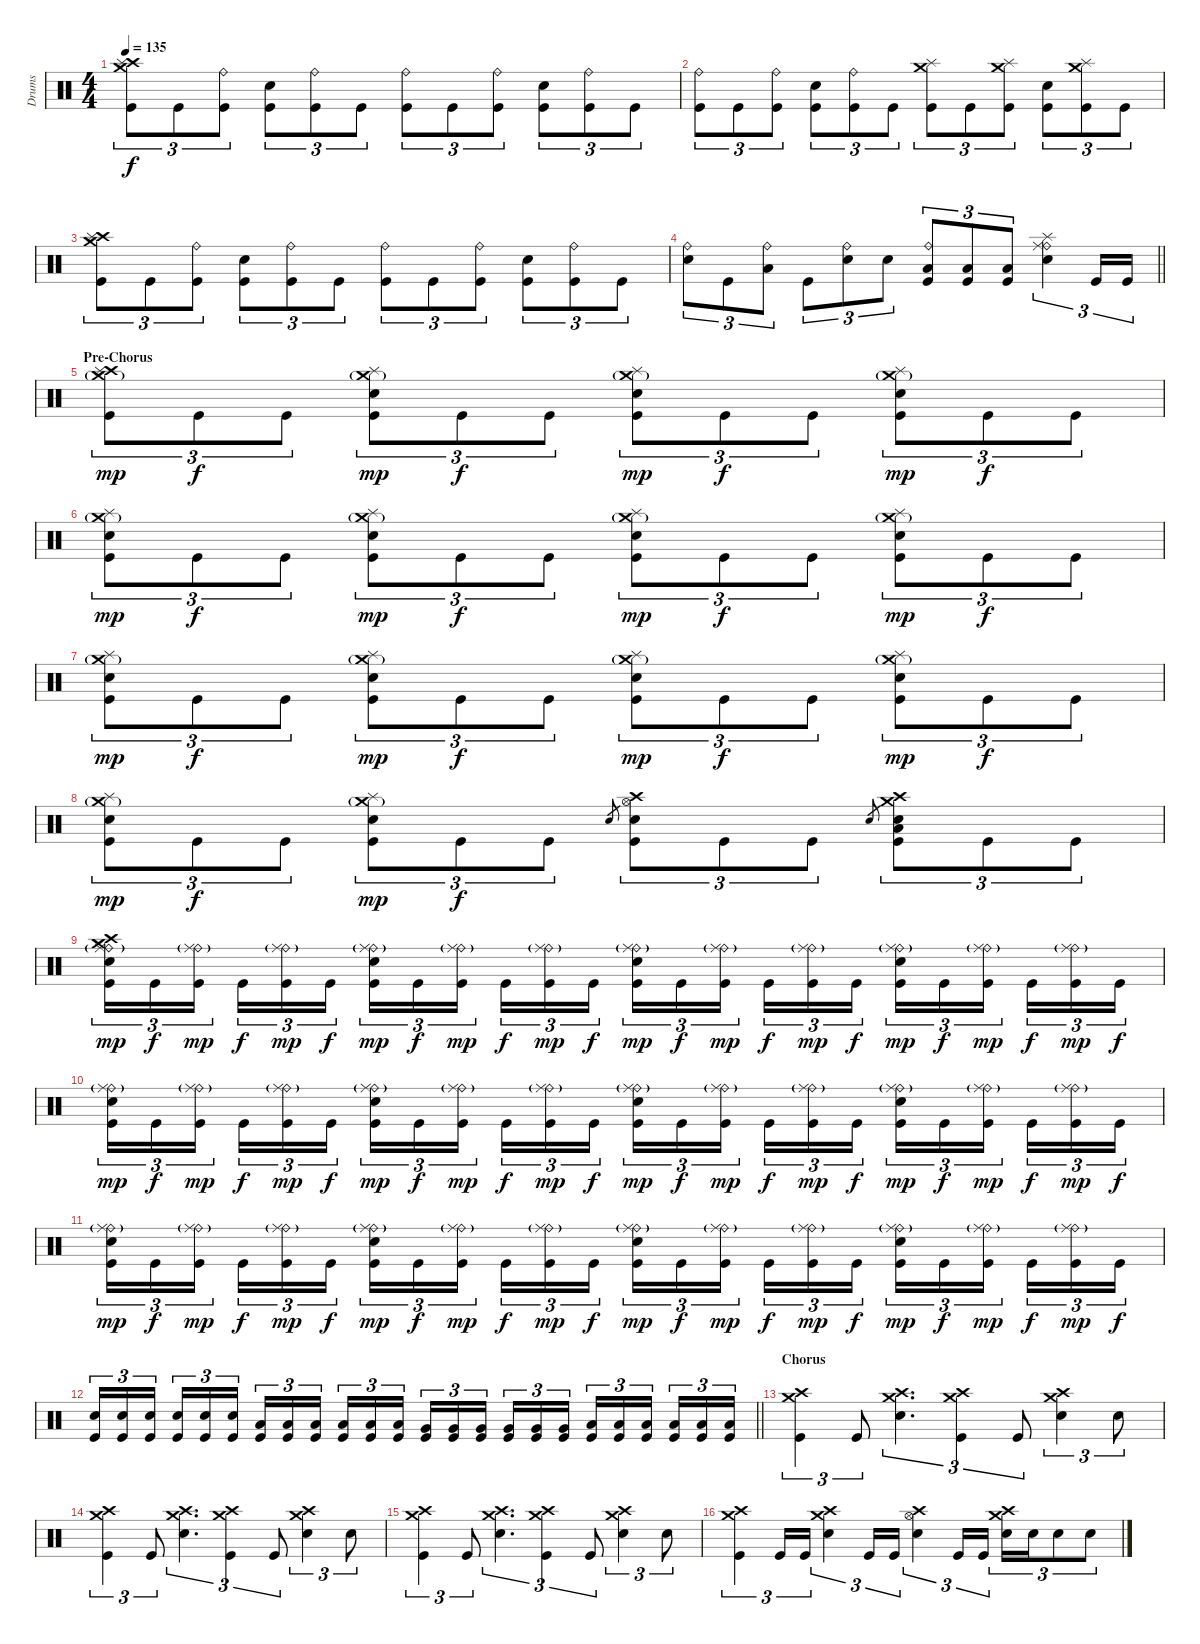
\track ("Drums" "Drums") {instrument percussion}
\staff {score}
\articulation defaults
\ts (4 4)
\tempo 135
\clef neutral
\ks c
("Crash high (hit)" "Crash medium (hit)" "Splash (hit)" "Kick (hit)").8{tu (3 2) dy f} "Kick (hit)".8{tu (3 2)} ("Ride (bell)" "Kick (hit)").8{tu (3 2)} ("Electric Snare (hit)" "Kick (hit)").8{tu (3 2)} ("Ride (bell)" "Kick (hit)").8{tu (3 2)} "Kick (hit)".8{tu (3 2)} ("Ride (bell)" "Kick (hit)").8{tu (3 2)} "Kick (hit)".8{tu (3 2)} ("Ride (bell)" "Kick (hit)").8{tu (3 2)} ("Electric Snare (hit)" "Kick (hit)").8{tu (3 2)} ("Ride (bell)" "Kick (hit)").8{tu (3 2)} "Kick (hit)".8{tu (3 2)} |
("Ride (bell)" "Kick (hit)").8{tu (3 2)} "Kick (hit)".8{tu (3 2)} ("Ride (bell)" "Kick (hit)").8{tu (3 2)} ("Electric Snare (hit)" "Kick (hit)").8{tu (3 2)} ("Ride (bell)" "Kick (hit)").8{tu (3 2)} "Kick (hit)".8{tu (3 2)} ("Crash medium (hit)" "Splash (hit)" "Kick (hit)").8{tu (3 2)} "Kick (hit)".8{tu (3 2)} ("Crash medium (hit)" "Splash (hit)" "Kick (hit)").8{tu (3 2)} ("Electric Snare (hit)" "Kick (hit)").8{tu (3 2)} ("Crash medium (hit)" "Splash (hit)" "Kick (hit)").8{tu (3 2)} "Kick (hit)".8{tu (3 2)} |
("Crash high (hit)" "Crash medium (hit)" "Splash (hit)" "Kick (hit)").8{tu (3 2)} "Kick (hit)".8{tu (3 2)} ("Ride (bell)" "Kick (hit)").8{tu (3 2)} ("Electric Snare (hit)" "Kick (hit)").8{tu (3 2)} ("Ride (bell)" "Kick (hit)").8{tu (3 2)} "Kick (hit)".8{tu (3 2)} ("Ride (bell)" "Kick (hit)").8{tu (3 2)} "Kick (hit)".8{tu (3 2)} ("Ride (bell)" "Kick (hit)").8{tu (3 2)} ("Electric Snare (hit)" "Kick (hit)").8{tu (3 2)} ("Ride (bell)" "Kick (hit)").8{tu (3 2)} "Kick (hit)".8{tu (3 2)} |
\barLineRight lightlight
("Ride (bell)" "Electric Snare (hit)").8{tu (3 2)} "Kick (hit)".8{tu (3 2)} ("Ride (bell)" "Low Floor Tom (hit)").8{tu (3 2)} "Kick (hit)".8{tu (3 2)} ("Ride (bell)" "Electric Snare (hit)").8{tu (3 2)} "Electric Snare (hit)".8{tu (3 2)} ("Ride (bell)" "Low Floor Tom (hit)" "Kick (hit)").8{tu (3 2)} ("Low Floor Tom (hit)" "Kick (hit)").8{tu (3 2)} ("Low Floor Tom (hit)" "Kick (hit)").8{tu (3 2)} ("Splash (hit)" "Ride (bell)" "Ride (middle)" "Electric Snare (hit)").4{tu (3 2)} "Kick (hit)".16{tu (3 2)} "Kick (hit)".16{tu (3 2)} |
\section ("" "Pre-Chorus")
("Crash high (hit)" "Crash medium (hit)"{g} "Splash (hit)" "Kick (hit)").8{tu (3 2) dy mp} "Kick (hit)".8{tu (3 2) dy f} "Kick (hit)".8{tu (3 2)} ("Crash medium (hit)"{g} "Splash (hit)" "Electric Snare (hit)" "Kick (hit)").8{tu (3 2) dy mp} "Kick (hit)".8{tu (3 2) dy f} "Kick (hit)".8{tu (3 2)} ("Crash medium (hit)"{g} "Splash (hit)" "Electric Snare (hit)" "Kick (hit)").8{tu (3 2) dy mp} "Kick (hit)".8{tu (3 2) dy f} "Kick (hit)".8{tu (3 2)} ("Crash medium (hit)"{g} "Splash (hit)" "Electric Snare (hit)" "Kick (hit)").8{tu (3 2) dy mp} "Kick (hit)".8{tu (3 2) dy f} "Kick (hit)".8{tu (3 2)} |
("Crash medium (hit)"{g} "Splash (hit)" "Electric Snare (hit)" "Kick (hit)").8{tu (3 2) dy mp} "Kick (hit)".8{tu (3 2) dy f} "Kick (hit)".8{tu (3 2)} ("Crash medium (hit)"{g} "Splash (hit)" "Electric Snare (hit)" "Kick (hit)").8{tu (3 2) dy mp} "Kick (hit)".8{tu (3 2) dy f} "Kick (hit)".8{tu (3 2)} ("Crash medium (hit)"{g} "Splash (hit)" "Electric Snare (hit)" "Kick (hit)").8{tu (3 2) dy mp} "Kick (hit)".8{tu (3 2) dy f} "Kick (hit)".8{tu (3 2)} ("Crash medium (hit)"{g} "Splash (hit)" "Electric Snare (hit)" "Kick (hit)").8{tu (3 2) dy mp} "Kick (hit)".8{tu (3 2) dy f} "Kick (hit)".8{tu (3 2)} |
("Crash medium (hit)"{g} "Splash (hit)" "Electric Snare (hit)" "Kick (hit)").8{tu (3 2) dy mp} "Kick (hit)".8{tu (3 2) dy f} "Kick (hit)".8{tu (3 2)} ("Crash medium (hit)"{g} "Splash (hit)" "Electric Snare (hit)" "Kick (hit)").8{tu (3 2) dy mp} "Kick (hit)".8{tu (3 2) dy f} "Kick (hit)".8{tu (3 2)} ("Crash medium (hit)"{g} "Splash (hit)" "Electric Snare (hit)" "Kick (hit)").8{tu (3 2) dy mp} "Kick (hit)".8{tu (3 2) dy f} "Kick (hit)".8{tu (3 2)} ("Crash medium (hit)"{g} "Splash (hit)" "Electric Snare (hit)" "Kick (hit)").8{tu (3 2) dy mp} "Kick (hit)".8{tu (3 2) dy f} "Kick (hit)".8{tu (3 2)} |
("Crash medium (hit)"{g} "Splash (hit)" "Electric Snare (hit)" "Kick (hit)").8{tu (3 2) dy mp} "Kick (hit)".8{tu (3 2) dy f} "Kick (hit)".8{tu (3 2)} ("Crash medium (hit)"{g} "Splash (hit)" "Electric Snare (hit)" "Kick (hit)").8{tu (3 2) dy mp} "Kick (hit)".8{tu (3 2) dy f} "Kick (hit)".8{tu (3 2)} "Electric Snare (hit)".8{gr} ("Hi-Hat (open)" "Crash high (hit)" "Electric Snare (hit)" "Kick (hit)").8{tu (3 2)} "Kick (hit)".8{tu (3 2)} "Kick (hit)".8{tu (3 2)} "Electric Snare (hit)".8{gr} ("Crash high (hit)" "Crash medium (hit)" "Low Floor Tom (hit)" "Electric Snare (hit)" "Kick (hit)").8{tu (3 2)} "Kick (hit)".8{tu (3 2)} "Kick (hit)".8{tu (3 2)} |
("Crash high (hit)" "Ride (bell)" "Ride (middle)"{g} "Crash medium (hit)" "Electric Snare (hit)" "Kick (hit)").16{tu (3 2) dy mp} "Kick (hit)".16{tu (3 2) dy f} ("Ride (bell)" "Ride (middle)"{g} "Kick (hit)").16{tu (3 2) dy mp beam splitsecondary} "Kick (hit)".16{tu (3 2) dy f} ("Ride (bell)" "Ride (middle)"{g} "Kick (hit)").16{tu (3 2) dy mp} "Kick (hit)".16{tu (3 2) dy f} ("Ride (bell)" "Ride (middle)"{g} "Electric Snare (hit)" "Kick (hit)").16{tu (3 2) dy mp} "Kick (hit)".16{tu (3 2) dy f} ("Ride (bell)" "Ride (middle)"{g} "Kick (hit)").16{tu (3 2) dy mp beam splitsecondary} "Kick (hit)".16{tu (3 2) dy f} ("Ride (bell)" "Ride (middle)"{g} "Kick (hit)").16{tu (3 2) dy mp} "Kick (hit)".16{tu (3 2) dy f} ("Ride (bell)" "Ride (middle)"{g} "Electric Snare (hit)" "Kick (hit)").16{tu (3 2) dy mp} "Kick (hit)".16{tu (3 2) dy f} ("Ride (bell)" "Ride (middle)"{g} "Kick (hit)").16{tu (3 2) dy mp beam splitsecondary} "Kick (hit)".16{tu (3 2) dy f} ("Ride (bell)" "Ride (middle)"{g} "Kick (hit)").16{tu (3 2) dy mp} "Kick (hit)".16{tu (3 2) dy f} ("Ride (bell)" "Ride (middle)"{g} "Electric Snare (hit)" "Kick (hit)").16{tu (3 2) dy mp} "Kick (hit)".16{tu (3 2) dy f} ("Ride (bell)" "Ride (middle)"{g} "Kick (hit)").16{tu (3 2) dy mp beam splitsecondary} "Kick (hit)".16{tu (3 2) dy f} ("Ride (bell)" "Ride (middle)"{g} "Kick (hit)").16{tu (3 2) dy mp} "Kick (hit)".16{tu (3 2) dy f} |
("Ride (bell)" "Ride (middle)"{g} "Electric Snare (hit)" "Kick (hit)").16{tu (3 2) dy mp} "Kick (hit)".16{tu (3 2) dy f} ("Ride (bell)" "Ride (middle)"{g} "Kick (hit)").16{tu (3 2) dy mp beam splitsecondary} "Kick (hit)".16{tu (3 2) dy f} ("Ride (bell)" "Ride (middle)"{g} "Kick (hit)").16{tu (3 2) dy mp} "Kick (hit)".16{tu (3 2) dy f} ("Ride (bell)" "Ride (middle)"{g} "Electric Snare (hit)" "Kick (hit)").16{tu (3 2) dy mp} "Kick (hit)".16{tu (3 2) dy f} ("Ride (bell)" "Ride (middle)"{g} "Kick (hit)").16{tu (3 2) dy mp beam splitsecondary} "Kick (hit)".16{tu (3 2) dy f} ("Ride (bell)" "Ride (middle)"{g} "Kick (hit)").16{tu (3 2) dy mp} "Kick (hit)".16{tu (3 2) dy f} ("Ride (bell)" "Ride (middle)"{g} "Electric Snare (hit)" "Kick (hit)").16{tu (3 2) dy mp} "Kick (hit)".16{tu (3 2) dy f} ("Ride (bell)" "Ride (middle)"{g} "Kick (hit)").16{tu (3 2) dy mp beam splitsecondary} "Kick (hit)".16{tu (3 2) dy f} ("Ride (bell)" "Ride (middle)"{g} "Kick (hit)").16{tu (3 2) dy mp} "Kick (hit)".16{tu (3 2) dy f} ("Ride (bell)" "Ride (middle)"{g} "Electric Snare (hit)" "Kick (hit)").16{tu (3 2) dy mp} "Kick (hit)".16{tu (3 2) dy f} ("Ride (bell)" "Ride (middle)"{g} "Kick (hit)").16{tu (3 2) dy mp beam splitsecondary} "Kick (hit)".16{tu (3 2) dy f} ("Ride (bell)" "Ride (middle)"{g} "Kick (hit)").16{tu (3 2) dy mp} "Kick (hit)".16{tu (3 2) dy f} |
("Ride (bell)" "Ride (middle)"{g} "Electric Snare (hit)" "Kick (hit)").16{tu (3 2) dy mp} "Kick (hit)".16{tu (3 2) dy f} ("Ride (bell)" "Ride (middle)"{g} "Kick (hit)").16{tu (3 2) dy mp beam splitsecondary} "Kick (hit)".16{tu (3 2) dy f} ("Ride (bell)" "Ride (middle)"{g} "Kick (hit)").16{tu (3 2) dy mp} "Kick (hit)".16{tu (3 2) dy f} ("Ride (bell)" "Ride (middle)"{g} "Electric Snare (hit)" "Kick (hit)").16{tu (3 2) dy mp} "Kick (hit)".16{tu (3 2) dy f} ("Ride (bell)" "Ride (middle)"{g} "Kick (hit)").16{tu (3 2) dy mp beam splitsecondary} "Kick (hit)".16{tu (3 2) dy f} ("Ride (bell)" "Ride (middle)"{g} "Kick (hit)").16{tu (3 2) dy mp} "Kick (hit)".16{tu (3 2) dy f} ("Ride (bell)" "Ride (middle)"{g} "Electric Snare (hit)" "Kick (hit)").16{tu (3 2) dy mp} "Kick (hit)".16{tu (3 2) dy f} ("Ride (bell)" "Ride (middle)"{g} "Kick (hit)").16{tu (3 2) dy mp beam splitsecondary} "Kick (hit)".16{tu (3 2) dy f} ("Ride (bell)" "Ride (middle)"{g} "Kick (hit)").16{tu (3 2) dy mp} "Kick (hit)".16{tu (3 2) dy f} ("Ride (bell)" "Ride (middle)"{g} "Electric Snare (hit)" "Kick (hit)").16{tu (3 2) dy mp} "Kick (hit)".16{tu (3 2) dy f} ("Ride (bell)" "Ride (middle)"{g} "Kick (hit)").16{tu (3 2) dy mp beam splitsecondary} "Kick (hit)".16{tu (3 2) dy f} ("Ride (bell)" "Ride (middle)"{g} "Kick (hit)").16{tu (3 2) dy mp} "Kick (hit)".16{tu (3 2) dy f} |
\barLineRight lightlight
("Kick (hit)" "Electric Snare (hit)").16{tu (3 2)} ("Kick (hit)" "Electric Snare (hit)").16{tu (3 2)} ("Kick (hit)" "Electric Snare (hit)").16{tu (3 2) beam splitsecondary} ("Kick (hit)" "Electric Snare (hit)").16{tu (3 2)} ("Kick (hit)" "Electric Snare (hit)").16{tu (3 2)} ("Kick (hit)" "Electric Snare (hit)").16{tu (3 2)} ("Kick (hit)" "Low Tom (hit)").16{tu (3 2)} ("Kick (hit)" "Low Tom (hit)").16{tu (3 2)} ("Kick (hit)" "Low Tom (hit)").16{tu (3 2) beam splitsecondary} ("Kick (hit)" "Low Tom (hit)").16{tu (3 2)} ("Kick (hit)" "Low Tom (hit)").16{tu (3 2)} ("Kick (hit)" "Low Tom (hit)").16{tu (3 2)} ("Kick (hit)" "Very Low Tom (hit)").16{tu (3 2)} ("Kick (hit)" "Very Low Tom (hit)").16{tu (3 2)} ("Kick (hit)" "Very Low Tom (hit)").16{tu (3 2) beam splitsecondary} ("Kick (hit)" "Very Low Tom (hit)").16{tu (3 2)} ("Kick (hit)" "Very Low Tom (hit)").16{tu (3 2)} ("Kick (hit)" "Very Low Tom (hit)").16{tu (3 2)} ("Kick (hit)" "Low Floor Tom (hit)").16{tu (3 2)} ("Kick (hit)" "Low Floor Tom (hit)").16{tu (3 2)} ("Kick (hit)" "Low Floor Tom (hit)").16{tu (3 2) beam splitsecondary} ("Kick (hit)" "Low Floor Tom (hit)").16{tu (3 2)} ("Kick (hit)" "Low Floor Tom (hit)").16{tu (3 2)} ("Kick (hit)" "Low Floor Tom (hit)").16{tu (3 2)} |
\section ("" "Chorus")
("Crash medium (hit)" "Crash high (hit)" "Kick (hit)").4{tu (3 2)} "Kick (hit)".8{tu (3 2)} ("Crash medium (hit)" "Crash high (hit)" "Electric Snare (hit)").4{d tu (3 2)} ("Crash medium (hit)" "Crash high (hit)" "Kick (hit)").4{tu (3 2)} "Kick (hit)".8{tu (3 2)} ("Crash medium (hit)" "Crash high (hit)" "Electric Snare (hit)").4{tu (3 2)} "Electric Snare (hit)".8{tu (3 2)} |
("Crash medium (hit)" "Crash high (hit)" "Kick (hit)").4{tu (3 2)} "Kick (hit)".8{tu (3 2)} ("Crash medium (hit)" "Crash high (hit)" "Electric Snare (hit)").4{d tu (3 2)} ("Crash medium (hit)" "Crash high (hit)" "Kick (hit)").4{tu (3 2)} "Kick (hit)".8{tu (3 2)} ("Crash medium (hit)" "Crash high (hit)" "Electric Snare (hit)").4{tu (3 2)} "Electric Snare (hit)".8{tu (3 2)} |
("Crash medium (hit)" "Crash high (hit)" "Kick (hit)").4{tu (3 2)} "Kick (hit)".8{tu (3 2)} ("Crash medium (hit)" "Crash high (hit)" "Electric Snare (hit)").4{d tu (3 2)} ("Crash medium (hit)" "Crash high (hit)" "Kick (hit)").4{tu (3 2)} "Kick (hit)".8{tu (3 2)} ("Crash medium (hit)" "Crash high (hit)" "Electric Snare (hit)").4{tu (3 2)} "Electric Snare (hit)".8{tu (3 2)} |
("Crash medium (hit)" "Crash high (hit)" "Kick (hit)").4{tu (3 2)} "Kick (hit)".16{tu (3 2)} "Kick (hit)".16{tu (3 2)} ("Crash medium (hit)" "Crash high (hit)" "Electric Snare (hit)").4{tu (3 2)} "Kick (hit)".16{tu (3 2)} "Kick (hit)".16{tu (3 2)} ("Hi-Hat (open)" "Crash high (hit)" "Electric Snare (hit)").4{tu (3 2)} "Kick (hit)".16{tu (3 2)} "Kick (hit)".16{tu (3 2)} ("Crash medium (hit)" "Crash high (hit)" "Electric Snare (hit)").16{tu (3 2)} "Electric Snare (hit)".16{tu (3 2)} "Electric Snare (hit)".8{tu (3 2)} "Electric Snare (hit)".8{tu (3 2)}
